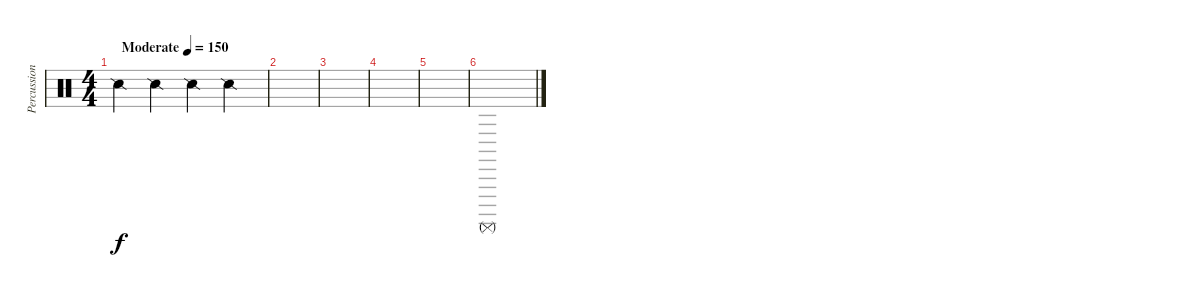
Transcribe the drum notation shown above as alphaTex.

\track ("Percussion" "Percussion") {instrument percussion}
\staff {score}
\articulation defaults
\ts (4 4)
\tempo (150 "Moderate")
\clef neutral
\ks c "Snare (side stick) 2".4{dy f} "Snare (side stick) 2".4 "Snare (side stick) 2".4 "Snare (side stick) 2".4
|
|
|
|
|
"Surdo (mute)".1
